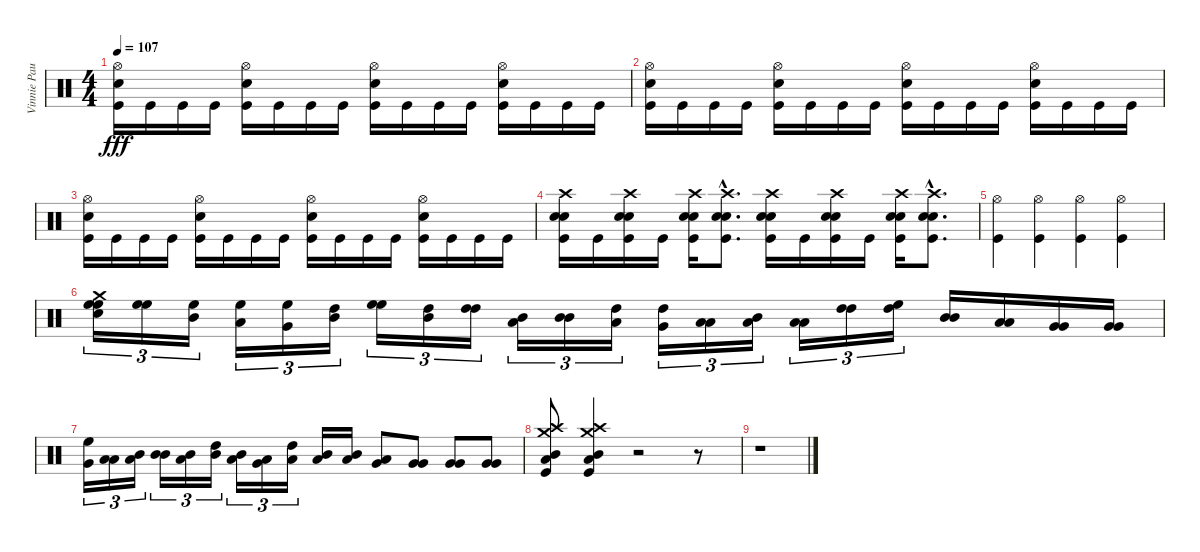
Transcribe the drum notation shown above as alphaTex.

\track ("Vinnie Paul" "Vinnie Pau") {instrument percussion}
\staff {score}
\articulation defaults
\ts (4 4)
\tempo 107
\clef neutral
\ks c
("Hi-Hat (open)" "Kick (hit)" "Electric Snare (hit)").16{dy fff} "Kick (hit)".16 "Kick (hit)".16 "Kick (hit)".16 ("Hi-Hat (open)" "Kick (hit)" "Electric Snare (hit)").16 "Kick (hit)".16 "Kick (hit)".16 "Kick (hit)".16 ("Hi-Hat (open)" "Kick (hit)" "Electric Snare (hit)").16 "Kick (hit)".16 "Kick (hit)".16 "Kick (hit)".16 ("Hi-Hat (open)" "Kick (hit)" "Electric Snare (hit)").16 "Kick (hit)".16 "Kick (hit)".16 "Kick (hit)".16 |
("Hi-Hat (open)" "Kick (hit)" "Electric Snare (hit)").16 "Kick (hit)".16 "Kick (hit)".16 "Kick (hit)".16 ("Hi-Hat (open)" "Kick (hit)" "Electric Snare (hit)").16 "Kick (hit)".16 "Kick (hit)".16 "Kick (hit)".16 ("Hi-Hat (open)" "Kick (hit)" "Electric Snare (hit)").16 "Kick (hit)".16 "Kick (hit)".16 "Kick (hit)".16 ("Hi-Hat (open)" "Kick (hit)" "Electric Snare (hit)").16 "Kick (hit)".16 "Kick (hit)".16 "Kick (hit)".16 |
("Hi-Hat (open)" "Kick (hit)" "Electric Snare (hit)").16 "Kick (hit)".16 "Kick (hit)".16 "Kick (hit)".16 ("Hi-Hat (open)" "Kick (hit)" "Electric Snare (hit)").16 "Kick (hit)".16 "Kick (hit)".16 "Kick (hit)".16 ("Hi-Hat (open)" "Kick (hit)" "Electric Snare (hit)").16 "Kick (hit)".16 "Kick (hit)".16 "Kick (hit)".16 ("Hi-Hat (open)" "Kick (hit)" "Electric Snare (hit)").16 "Kick (hit)".16 "Kick (hit)".16 "Kick (hit)".16 |
("Crash high (hit)" "Kick (hit)" "Electric Snare (hit)" "Electric Snare (hit)").16 "Kick (hit)".16 ("Crash high (hit)" "Kick (hit)" "Electric Snare (hit)" "Electric Snare (hit)").16 "Kick (hit)".16 ("Crash high (hit)" "Kick (hit)" "Electric Snare (hit)" "Electric Snare (hit)").16 ("Crash high (hit)"{hac} "Kick (hit)"{hac} "Electric Snare (hit)"{hac} "Electric Snare (hit)"{hac}).8{d} ("Crash high (hit)" "Kick (hit)" "Electric Snare (hit)" "Electric Snare (hit)").16 "Kick (hit)".16 ("Crash high (hit)" "Kick (hit)" "Electric Snare (hit)" "Electric Snare (hit)").16 "Kick (hit)".16 ("Crash high (hit)" "Kick (hit)" "Electric Snare (hit)" "Electric Snare (hit)").16 ("Crash high (hit)"{hac} "Kick (hit)"{hac} "Electric Snare (hit)"{hac} "Electric Snare (hit)"{hac}).8{d} |
("Hi-Hat (open)" "Kick (hit)").4 ("Hi-Hat (open)" "Kick (hit)").4 ("Hi-Hat (open)" "Kick (hit)").4 ("Hi-Hat (open)" "Kick (hit)").4 |
("Crash medium (hit)" "Electric Snare (hit)" "High Floor Tom (hit)" "High Floor Tom (hit)").16{tu (3 2)} ("High Floor Tom (hit)" "High Floor Tom (hit)").16{tu (3 2)} ("Mid Tom (hit)" "High Floor Tom (hit)").16{tu (3 2)} ("Low Tom (hit)" "High Floor Tom (hit)").16{tu (3 2)} ("Very Low Tom (hit)" "High Floor Tom (hit)").16{tu (3 2)} ("Mid Tom (hit)" "High Tom (hit)").16{tu (3 2)} ("High Floor Tom (hit)" "High Floor Tom (hit)").16{tu (3 2)} ("High Tom (hit)" "Mid Tom (hit)").16{tu (3 2)} ("High Tom (hit)" "High Tom (hit)").16{tu (3 2)} ("Mid Tom (hit)" "Low Tom (hit)").16{tu (3 2)} ("Mid Tom (hit)" "Mid Tom (hit)").16{tu (3 2)} ("High Tom (hit)" "Low Tom (hit)").16{tu (3 2)} ("High Tom (hit)" "Very Low Tom (hit)").16{tu (3 2)} ("Low Tom (hit)" "Low Tom (hit)").16{tu (3 2)} ("Mid Tom (hit)" "Low Tom (hit)").16{tu (3 2)} ("Low Tom (hit)" "Low Tom (hit)").16{tu (3 2)} ("High Tom (hit)" "High Tom (hit)").16{tu (3 2)} ("High Floor Tom (hit)" "High Tom (hit)").16{tu (3 2)} ("Mid Tom (hit)" "Mid Tom (hit)").16 ("Low Tom (hit)" "Low Tom (hit)").16 ("Very Low Tom (hit)" "Very Low Tom (hit)").16 ("Very Low Tom (hit)" "Very Low Tom (hit)").16 |
("High Floor Tom (hit)" "Very Low Tom (hit)").16{tu (3 2)} ("Low Tom (hit)" "Low Tom (hit)").16{tu (3 2)} ("Low Tom (hit)" "Mid Tom (hit)").16{tu (3 2)} ("Mid Tom (hit)" "Mid Tom (hit)").16{tu (3 2)} ("Mid Tom (hit)" "Low Tom (hit)").16{tu (3 2)} ("Mid Tom (hit)" "High Tom (hit)").16{tu (3 2)} ("Mid Tom (hit)" "Low Tom (hit)").16{tu (3 2)} ("Low Tom (hit)" "Very Low Tom (hit)").16{tu (3 2)} ("High Tom (hit)" "Low Tom (hit)").16{tu (3 2)} ("Low Tom (hit)" "Mid Tom (hit)").16 ("Low Tom (hit)" "Mid Tom (hit)").16 ("Low Tom (hit)" "Very Low Tom (hit)").8 ("Very Low Tom (hit)" "Very Low Tom (hit)").8 ("Very Low Tom (hit)" "Very Low Tom (hit)").8 ("Very Low Tom (hit)" "Very Low Tom (hit)").8 |
("Crash high (hit)" "Crash medium (hit)" "Kick (hit)" "Mid Tom (hit)" "Low Tom (hit)").8 ("Crash high (hit)" "Crash medium (hit)" "Kick (hit)" "Mid Tom (hit)" "Low Tom (hit)").4 r.2 r.8 |
r.1
